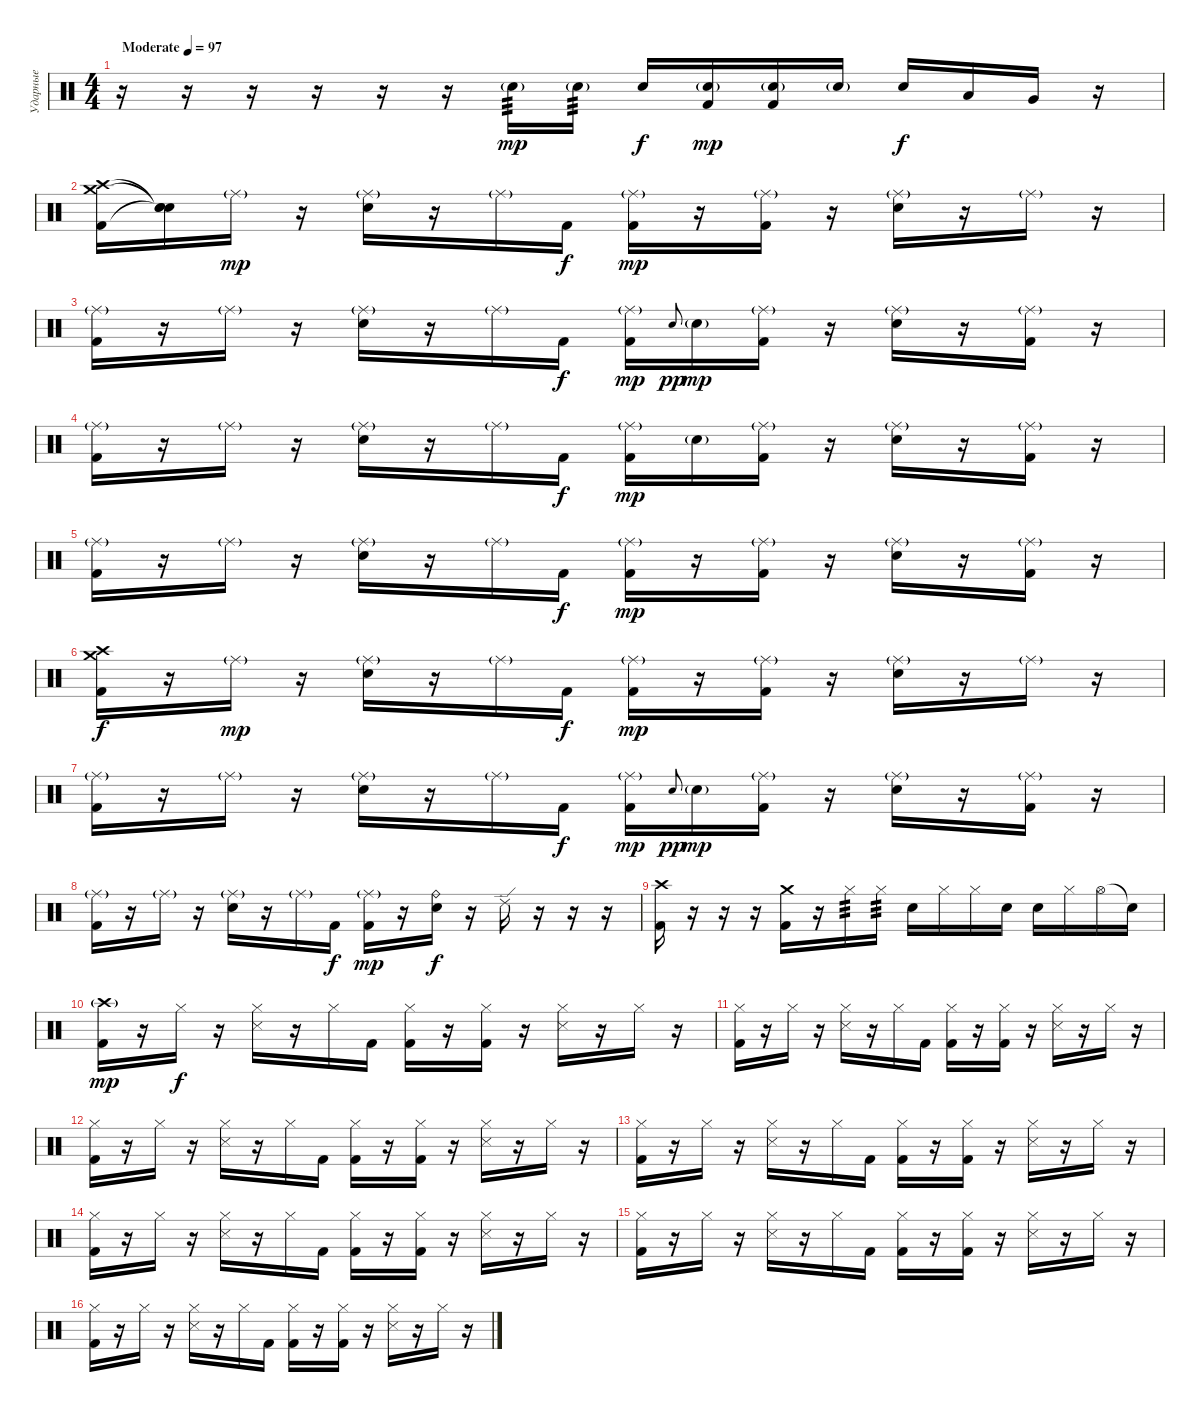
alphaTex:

\track ("Ударные" "Ударные") {instrument percussion}
\staff {score}
\articulation defaults
\ts (4 4)
\tempo (97 "Moderate")
\clef neutral
\ks c
r.16{dy mp} r.16 r.16 r.16 r.16 r.16 "Electric Snare (hit)"{g}.16{tp 3} "Electric Snare (hit)"{g}.16{tp 3} "Electric Snare (hit)".16{dy f} ("Electric Snare (hit)"{g} "Kick (hit) 2").16{dy mp} ("Electric Snare (hit)"{g} "Kick (hit) 2").16 "Electric Snare (hit)"{g}.16 "Electric Snare (hit)".16{dy f} "Low Tom (hit)".16 "Very Low Tom (hit)".16 r.16 |
("Crash high (hit)" "Crash medium (hit)" "Kick (hit) 2").16 ("Snare (hit)"{t} "Snare (hit)"{t} "Snare (hit)"{t}).16 "Ride (middle)"{g}.16{dy mp} r.16 ("Ride (middle)"{g} "Electric Snare (hit)").16 r.16 "Ride (middle)"{g}.16 "Kick (hit) 2".16{dy f} ("Ride (middle)"{g} "Kick (hit) 2").16{dy mp} r.16 ("Ride (middle)"{g} "Kick (hit) 2").16 r.16 ("Ride (middle)"{g} "Electric Snare (hit)").16 r.16 "Ride (middle)"{g}.16 r.16 |
("Ride (middle)"{g} "Kick (hit) 2").16 r.16 "Ride (middle)"{g}.16 r.16 ("Ride (middle)"{g} "Electric Snare (hit)").16 r.16 "Ride (middle)"{g}.16 "Kick (hit) 2".16{dy f} ("Ride (middle)"{g} "Kick (hit) 2").16{dy mp} "Electric Snare (hit)"{sl x}.8{gr onbeat dy pp} "Electric Snare (hit)"{g}.16{dy mp} ("Ride (middle)"{g} "Kick (hit) 2").16 r.16 ("Ride (middle)"{g} "Electric Snare (hit)").16 r.16 ("Ride (middle)"{g} "Kick (hit) 2").16 r.16 |
("Ride (middle)"{g} "Kick (hit) 2").16 r.16 "Ride (middle)"{g}.16 r.16 ("Ride (middle)"{g} "Electric Snare (hit)").16 r.16 "Ride (middle)"{g}.16 "Kick (hit) 2".16{dy f} ("Ride (middle)"{g} "Kick (hit) 2").16{dy mp} "Electric Snare (hit)"{g}.16 ("Ride (middle)"{g} "Kick (hit) 2").16 r.16 ("Ride (middle)"{g} "Electric Snare (hit)").16 r.16 ("Ride (middle)"{g} "Kick (hit) 2").16 r.16 |
("Ride (middle)"{g} "Kick (hit) 2").16 r.16 "Ride (middle)"{g}.16 r.16 ("Ride (middle)"{g} "Electric Snare (hit)").16 r.16 "Ride (middle)"{g}.16 "Kick (hit) 2".16{dy f} ("Ride (middle)"{g} "Kick (hit) 2").16{dy mp} r.16 ("Ride (middle)"{g} "Kick (hit) 2").16 r.16 ("Ride (middle)"{g} "Electric Snare (hit)").16 r.16 ("Ride (middle)"{g} "Kick (hit) 2").16 r.16 |
("Crash high (hit)" "Crash medium (hit)" "Kick (hit) 2").16{dy f} r.16 "Ride (middle)"{g}.16{dy mp} r.16 ("Ride (middle)"{g} "Electric Snare (hit)").16 r.16 "Ride (middle)"{g}.16 "Kick (hit) 2".16{dy f} ("Ride (middle)"{g} "Kick (hit) 2").16{dy mp} r.16 ("Ride (middle)"{g} "Kick (hit) 2").16 r.16 ("Ride (middle)"{g} "Electric Snare (hit)").16 r.16 "Ride (middle)"{g}.16 r.16 |
("Ride (middle)"{g} "Kick (hit) 2").16 r.16 "Ride (middle)"{g}.16 r.16 ("Ride (middle)"{g} "Electric Snare (hit)").16 r.16 "Ride (middle)"{g}.16 "Kick (hit) 2".16{dy f} ("Ride (middle)"{g} "Kick (hit) 2").16{dy mp} "Electric Snare (hit)"{sl x}.8{gr onbeat dy pp} "Electric Snare (hit)"{g}.16{dy mp} ("Ride (middle)"{g} "Kick (hit) 2").16 r.16 ("Ride (middle)"{g} "Electric Snare (hit)").16 r.16 ("Ride (middle)"{g} "Kick (hit) 2").16 r.16 |
("Ride (middle)"{g} "Kick (hit) 2").16 r.16 "Ride (middle)"{g}.16 r.16 ("Ride (middle)"{g} "Electric Snare (hit)").16 r.16 "Ride (middle)"{g}.16 "Kick (hit) 2".16{dy f} ("Ride (middle)"{g} "Kick (hit) 2").16{dy mp} r.16 ("Ride (bell)" "Electric Snare (hit)").16{dy f} r.16 "Ride (edge) 2".16 r.16 r.16 r.16 |
("Crash high (hit)" "Kick (hit) 2").16 r.16 r.16 r.16 ("Crash medium (hit)" "Kick (hit) 2").16 r.16 "Hi-Hat (closed)".16{tp 3} "Hi-Hat (closed)".16{tp 3} "Electric Snare (hit)".16 "Hi-Hat (closed)".16 "Hi-Hat (closed)".16 "Electric Snare (hit)".16 "Electric Snare (hit)".16 "Hi-Hat (closed)".16 "Hi-Hat (open)".16 "Snare (hit)"{t}.16 |
("Crash high (hit)"{g} "Kick (hit) 2").16{dy mp} r.16 "Hi-Hat (closed)".16{dy f} r.16 ("Hi-Hat (closed)" "Snare (side stick) 3").16 r.16 "Hi-Hat (closed)".16 "Kick (hit) 2".16 ("Hi-Hat (closed)" "Kick (hit) 2").16 r.16 ("Hi-Hat (closed)" "Kick (hit) 2").16 r.16 ("Hi-Hat (closed)" "Snare (side stick) 3").16 r.16 "Hi-Hat (closed)".16 r.16 |
("Hi-Hat (closed)" "Kick (hit) 2").16 r.16 "Hi-Hat (closed)".16 r.16 ("Hi-Hat (closed)" "Snare (side stick) 3").16 r.16 "Hi-Hat (closed)".16 "Kick (hit) 2".16 ("Hi-Hat (closed)" "Kick (hit) 2").16 r.16 ("Hi-Hat (closed)" "Kick (hit) 2").16 r.16 ("Hi-Hat (closed)" "Snare (side stick) 3").16 r.16 "Hi-Hat (closed)".16 r.16 |
("Hi-Hat (closed)" "Kick (hit) 2").16 r.16 "Hi-Hat (closed)".16 r.16 ("Hi-Hat (closed)" "Snare (side stick) 3").16 r.16 "Hi-Hat (closed)".16 "Kick (hit) 2".16 ("Hi-Hat (closed)" "Kick (hit) 2").16 r.16 ("Hi-Hat (closed)" "Kick (hit) 2").16 r.16 ("Hi-Hat (closed)" "Snare (side stick) 3").16 r.16 "Hi-Hat (closed)".16 r.16 |
("Hi-Hat (closed)" "Kick (hit) 2").16 r.16 "Hi-Hat (closed)".16 r.16 ("Hi-Hat (closed)" "Snare (side stick) 3").16 r.16 "Hi-Hat (closed)".16 "Kick (hit) 2".16 ("Hi-Hat (closed)" "Kick (hit) 2").16 r.16 ("Hi-Hat (closed)" "Kick (hit) 2").16 r.16 ("Hi-Hat (closed)" "Snare (side stick) 3").16 r.16 "Hi-Hat (closed)".16 r.16 |
("Hi-Hat (closed)" "Kick (hit) 2").16 r.16 "Hi-Hat (closed)".16 r.16 ("Hi-Hat (closed)" "Snare (side stick) 3").16 r.16 "Hi-Hat (closed)".16 "Kick (hit) 2".16 ("Hi-Hat (closed)" "Kick (hit) 2").16 r.16 ("Hi-Hat (closed)" "Kick (hit) 2").16 r.16 ("Hi-Hat (closed)" "Snare (side stick) 3").16 r.16 "Hi-Hat (closed)".16 r.16 |
("Hi-Hat (closed)" "Kick (hit) 2").16 r.16 "Hi-Hat (closed)".16 r.16 ("Hi-Hat (closed)" "Snare (side stick) 3").16 r.16 "Hi-Hat (closed)".16 "Kick (hit) 2".16 ("Hi-Hat (closed)" "Kick (hit) 2").16 r.16 ("Hi-Hat (closed)" "Kick (hit) 2").16 r.16 ("Hi-Hat (closed)" "Snare (side stick) 3").16 r.16 "Hi-Hat (closed)".16 r.16 |
("Hi-Hat (closed)" "Kick (hit) 2").16 r.16 "Hi-Hat (closed)".16 r.16 ("Hi-Hat (closed)" "Snare (side stick) 3").16 r.16 "Hi-Hat (closed)".16 "Kick (hit) 2".16 ("Hi-Hat (closed)" "Kick (hit) 2").16 r.16 ("Hi-Hat (closed)" "Kick (hit) 2").16 r.16 ("Hi-Hat (closed)" "Snare (side stick) 3").16 r.16 "Hi-Hat (closed)".16 r.16
